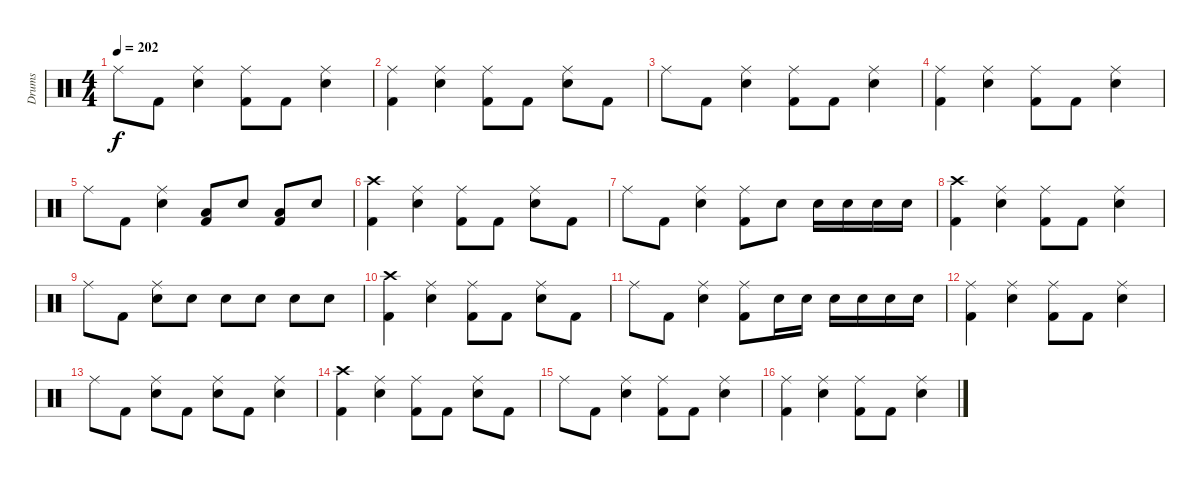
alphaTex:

\track ("Drums" "Drums") {instrument percussion}
\staff {score}
\articulation defaults
\ts (4 4)
\tempo 202
\clef neutral
\ks c "Ride (middle)".8{dy f} "Kick (hit) 2".8
("Ride (middle)" "Electric Snare (hit)").4 ("Ride (middle)" "Kick (hit) 2").8 "Kick (hit) 2".8 ("Ride (middle)" "Electric Snare (hit)").4 |
("Ride (middle)" "Kick (hit) 2").4 ("Ride (middle)" "Electric Snare (hit)").4 ("Ride (middle)" "Kick (hit) 2").8 "Kick (hit) 2".8 ("Ride (middle)" "Electric Snare (hit)").8 "Kick (hit) 2".8 |
"Ride (middle)".8 "Kick (hit) 2".8 ("Ride (middle)" "Electric Snare (hit)").4 ("Ride (middle)" "Kick (hit) 2").8 "Kick (hit) 2".8 ("Ride (middle)" "Electric Snare (hit)").4 |
("Ride (middle)" "Kick (hit) 2").4 ("Ride (middle)" "Electric Snare (hit)").4 ("Ride (middle)" "Kick (hit) 2").8 "Kick (hit) 2".8 ("Ride (middle)" "Electric Snare (hit)").4 |
"Ride (middle)".8 "Kick (hit) 2".8 ("Ride (middle)" "Electric Snare (hit)").4 ("Low Tom (hit)" "Kick (hit) 2").8 "Electric Snare (hit)".8 ("Low Tom (hit)" "Kick (hit) 2").8 "Electric Snare (hit)".8 |
("Crash high (hit)" "Kick (hit) 2").4 ("Ride (middle)" "Electric Snare (hit)").4 ("Ride (middle)" "Kick (hit) 2").8 "Kick (hit) 2".8 ("Ride (middle)" "Electric Snare (hit)").8 "Kick (hit) 2".8 |
"Ride (middle)".8 "Kick (hit) 2".8 ("Ride (middle)" "Electric Snare (hit)").4 ("Ride (middle)" "Kick (hit) 2").8 "Electric Snare (hit)".8 "Electric Snare (hit)".16 "Electric Snare (hit)".16 "Electric Snare (hit)".16 "Electric Snare (hit)".16 |
("Crash high (hit)" "Kick (hit) 2").4 ("Ride (middle)" "Electric Snare (hit)").4 ("Ride (middle)" "Kick (hit) 2").8 "Kick (hit) 2".8 ("Ride (middle)" "Electric Snare (hit)").4 |
"Ride (middle)".8 "Kick (hit) 2".8 ("Ride (middle)" "Electric Snare (hit)").8 "Electric Snare (hit)".8 "Electric Snare (hit)".8 "Electric Snare (hit)".8 "Electric Snare (hit)".8 "Electric Snare (hit)".8 |
("Crash high (hit)" "Kick (hit) 2").4 ("Ride (middle)" "Electric Snare (hit)").4 ("Ride (middle)" "Kick (hit) 2").8 "Kick (hit) 2".8 ("Ride (middle)" "Electric Snare (hit)").8 "Kick (hit) 2".8 |
"Ride (middle)".8 "Kick (hit) 2".8 ("Ride (middle)" "Electric Snare (hit)").4 ("Ride (middle)" "Kick (hit) 2").8 "Electric Snare (hit)".16 "Electric Snare (hit)".16 "Electric Snare (hit)".16 "Electric Snare (hit)".16 "Electric Snare (hit)".16 "Electric Snare (hit)".16 |
("Ride (middle)" "Kick (hit) 2").4 ("Ride (middle)" "Electric Snare (hit)").4 ("Ride (middle)" "Kick (hit) 2").8 "Kick (hit) 2".8 ("Ride (middle)" "Electric Snare (hit)").4 |
"Ride (middle)".8 "Kick (hit) 2".8 ("Ride (middle)" "Electric Snare (hit)").8 "Kick (hit) 2".8 ("Ride (middle)" "Electric Snare (hit)").8 "Kick (hit) 2".8 ("Ride (middle)" "Electric Snare (hit)").4 |
("Crash high (hit)" "Kick (hit) 2").4 ("Ride (middle)" "Electric Snare (hit)").4 ("Ride (middle)" "Kick (hit) 2").8 "Kick (hit) 2".8 ("Ride (middle)" "Electric Snare (hit)").8 "Kick (hit) 2".8 |
"Ride (middle)".8 "Kick (hit) 2".8 ("Ride (middle)" "Electric Snare (hit)").4 ("Ride (middle)" "Kick (hit) 2").8 "Kick (hit) 2".8 ("Ride (middle)" "Electric Snare (hit)").4 |
("Ride (middle)" "Kick (hit) 2").4 ("Ride (middle)" "Electric Snare (hit)").4 ("Ride (middle)" "Kick (hit) 2").8 "Kick (hit) 2".8 ("Ride (middle)" "Electric Snare (hit)").4
